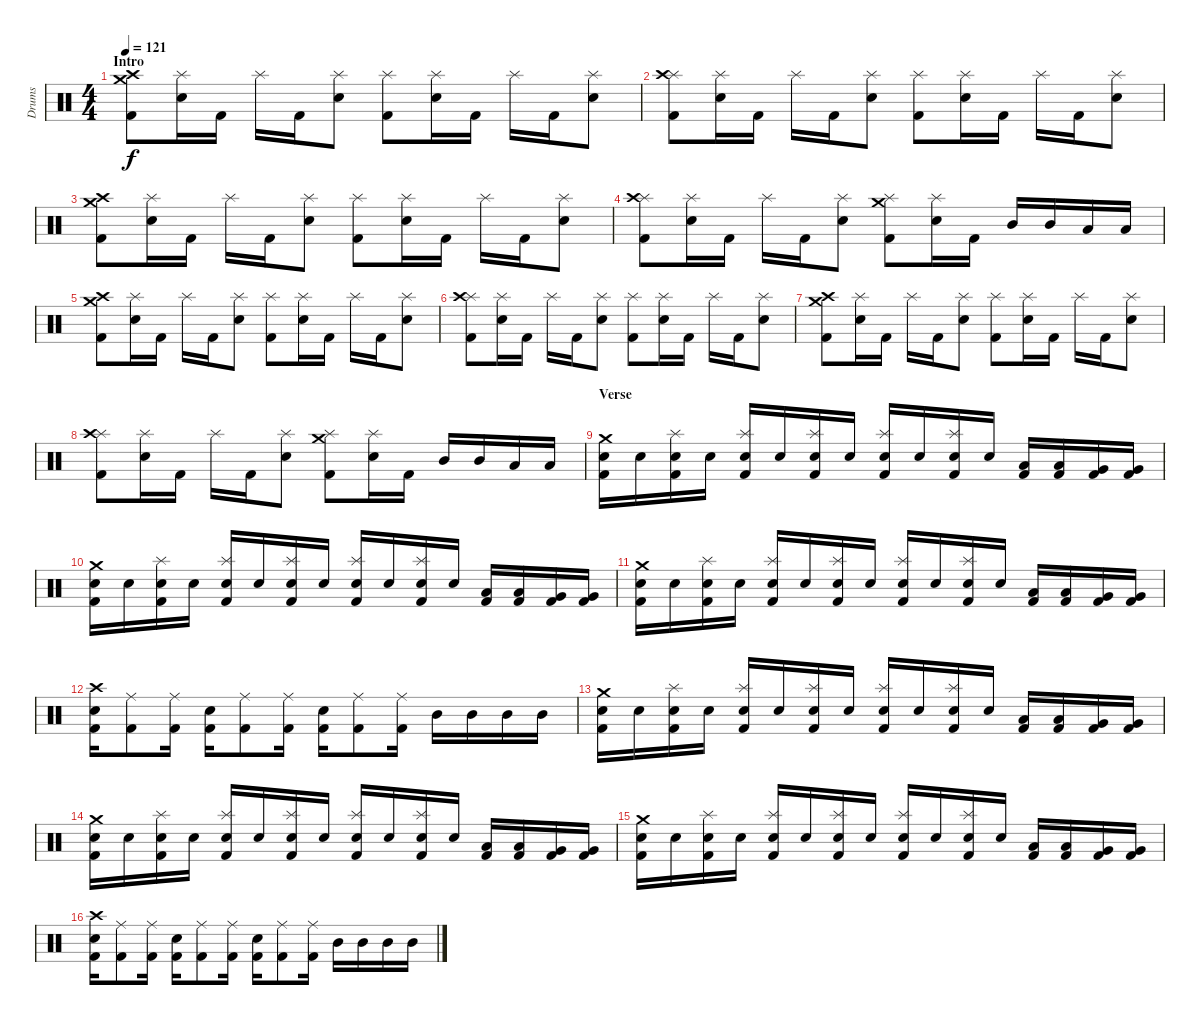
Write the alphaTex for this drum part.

\track ("Drums" "Drums") {instrument percussion}
\staff {score}
\articulation defaults
\ts (4 4)
\section ("" "Intro")
\tempo 121
\clef neutral
\ks c
("Crash high (hit)" "Crash medium (hit)" "Kick (hit) 2").8{dy f} ("Splash (hit)" "Snare (hit) 2").16 "Kick (hit) 2".16 "Splash (hit)".16 "Kick (hit) 2".16 ("Splash (hit)" "Snare (hit) 2").8 ("Splash (hit)" "Kick (hit) 2").8 ("Splash (hit)" "Snare (hit) 2").16 "Kick (hit) 2".16 "Splash (hit)".16 "Kick (hit) 2".16 ("Splash (hit)" "Snare (hit) 2").8 |
("Splash (hit)" "Crash high (hit)" "Kick (hit) 2").8 ("Splash (hit)" "Snare (hit) 2").16 "Kick (hit) 2".16 "Splash (hit)".16 "Kick (hit) 2".16 ("Splash (hit)" "Snare (hit) 2").8 ("Splash (hit)" "Kick (hit) 2").8 ("Splash (hit)" "Snare (hit) 2").16 "Kick (hit) 2".16 "Splash (hit)".16 "Kick (hit) 2".16 ("Splash (hit)" "Snare (hit) 2").8 |
("Crash high (hit)" "Crash medium (hit)" "Kick (hit) 2").8 ("Splash (hit)" "Snare (hit) 2").16 "Kick (hit) 2".16 "Splash (hit)".16 "Kick (hit) 2".16 ("Splash (hit)" "Snare (hit) 2").8 ("Splash (hit)" "Kick (hit) 2").8 ("Splash (hit)" "Snare (hit) 2").16 "Kick (hit) 2".16 "Splash (hit)".16 "Kick (hit) 2".16 ("Splash (hit)" "Snare (hit) 2").8 |
("Splash (hit)" "Crash high (hit)" "Kick (hit) 2").8 ("Splash (hit)" "Snare (hit) 2").16 "Kick (hit) 2".16 "Splash (hit)".16 "Kick (hit) 2".16 ("Splash (hit)" "Snare (hit) 2").8 ("Splash (hit)" "Crash medium (hit)" "Kick (hit) 2").8 ("Splash (hit)" "Snare (hit) 2").16 "Kick (hit) 2".16 "Mid Tom (hit)".16 "Mid Tom (hit)".16 "Low Tom (hit)".16 "Low Tom (hit)".16 |
("Crash high (hit)" "Crash medium (hit)" "Kick (hit) 2").8 ("Splash (hit)" "Snare (hit) 2").16 "Kick (hit) 2".16 "Splash (hit)".16 "Kick (hit) 2".16 ("Splash (hit)" "Snare (hit) 2").8 ("Splash (hit)" "Kick (hit) 2").8 ("Splash (hit)" "Snare (hit) 2").16 "Kick (hit) 2".16 "Splash (hit)".16 "Kick (hit) 2".16 ("Splash (hit)" "Snare (hit) 2").8 |
("Splash (hit)" "Crash high (hit)" "Kick (hit) 2").8 ("Splash (hit)" "Snare (hit) 2").16 "Kick (hit) 2".16 "Splash (hit)".16 "Kick (hit) 2".16 ("Splash (hit)" "Snare (hit) 2").8 ("Splash (hit)" "Kick (hit) 2").8 ("Splash (hit)" "Snare (hit) 2").16 "Kick (hit) 2".16 "Splash (hit)".16 "Kick (hit) 2".16 ("Splash (hit)" "Snare (hit) 2").8 |
("Crash high (hit)" "Crash medium (hit)" "Kick (hit) 2").8 ("Splash (hit)" "Snare (hit) 2").16 "Kick (hit) 2".16 "Splash (hit)".16 "Kick (hit) 2".16 ("Splash (hit)" "Snare (hit) 2").8 ("Splash (hit)" "Kick (hit) 2").8 ("Splash (hit)" "Snare (hit) 2").16 "Kick (hit) 2".16 "Splash (hit)".16 "Kick (hit) 2".16 ("Splash (hit)" "Snare (hit) 2").8 |
("Splash (hit)" "Crash high (hit)" "Kick (hit) 2").8 ("Splash (hit)" "Snare (hit) 2").16 "Kick (hit) 2".16 "Splash (hit)".16 "Kick (hit) 2".16 ("Splash (hit)" "Snare (hit) 2").8 ("Splash (hit)" "Crash medium (hit)" "Kick (hit) 2").8 ("Splash (hit)" "Snare (hit) 2").16 "Kick (hit) 2".16 "Mid Tom (hit)".16 "Mid Tom (hit)".16 "Low Tom (hit)".16 "Low Tom (hit)".16 |
\section ("" "Verse")
("Crash medium (hit)" "Snare (hit) 2" "Kick (hit) 2").16 "Snare (hit) 2".16 ("Splash (hit)" "Snare (hit) 2" "Kick (hit) 2").16 "Snare (hit) 2".16 ("Splash (hit)" "Snare (hit) 2" "Kick (hit) 2").16 "Snare (hit) 2".16 ("Splash (hit)" "Snare (hit) 2" "Kick (hit) 2").16 "Snare (hit) 2".16 ("Splash (hit)" "Snare (hit) 2" "Kick (hit) 2").16 "Snare (hit) 2".16 ("Splash (hit)" "Snare (hit) 2" "Kick (hit) 2").16 "Snare (hit) 2".16 ("Low Tom (hit)" "Kick (hit) 2").16 ("Low Tom (hit)" "Kick (hit) 2").16 ("Very Low Tom (hit)" "Kick (hit) 2").16 ("Very Low Tom (hit)" "Kick (hit) 2").16 |
("Crash medium (hit)" "Snare (hit) 2" "Kick (hit) 2").16 "Snare (hit) 2".16 ("Splash (hit)" "Snare (hit) 2" "Kick (hit) 2").16 "Snare (hit) 2".16 ("Splash (hit)" "Snare (hit) 2" "Kick (hit) 2").16 "Snare (hit) 2".16 ("Splash (hit)" "Snare (hit) 2" "Kick (hit) 2").16 "Snare (hit) 2".16 ("Splash (hit)" "Snare (hit) 2" "Kick (hit) 2").16 "Snare (hit) 2".16 ("Splash (hit)" "Snare (hit) 2" "Kick (hit) 2").16 "Snare (hit) 2".16 ("Low Tom (hit)" "Kick (hit) 2").16 ("Low Tom (hit)" "Kick (hit) 2").16 ("Very Low Tom (hit)" "Kick (hit) 2").16 ("Very Low Tom (hit)" "Kick (hit) 2").16 |
("Crash medium (hit)" "Snare (hit) 2" "Kick (hit) 2").16 "Snare (hit) 2".16 ("Splash (hit)" "Snare (hit) 2" "Kick (hit) 2").16 "Snare (hit) 2".16 ("Splash (hit)" "Snare (hit) 2" "Kick (hit) 2").16 "Snare (hit) 2".16 ("Splash (hit)" "Snare (hit) 2" "Kick (hit) 2").16 "Snare (hit) 2".16 ("Splash (hit)" "Snare (hit) 2" "Kick (hit) 2").16 "Snare (hit) 2".16 ("Splash (hit)" "Snare (hit) 2" "Kick (hit) 2").16 "Snare (hit) 2".16 ("Low Tom (hit)" "Kick (hit) 2").16 ("Low Tom (hit)" "Kick (hit) 2").16 ("Very Low Tom (hit)" "Kick (hit) 2").16 ("Very Low Tom (hit)" "Kick (hit) 2").16 |
("Crash high (hit)" "Snare (hit) 2" "Kick (hit) 2").16 ("Ride (middle)" "Kick (hit) 2").8 ("Ride (middle)" "Kick (hit) 2").16 ("Snare (hit) 2" "Kick (hit) 2").16 ("Ride (middle)" "Kick (hit) 2").8 ("Ride (middle)" "Kick (hit) 2").16 ("Snare (hit) 2" "Kick (hit) 2").16 ("Ride (middle)" "Kick (hit) 2").8 ("Ride (middle)" "Kick (hit) 2").16 "Mid Tom (hit)".16 "Mid Tom (hit)".16 "Mid Tom (hit)".16 "Mid Tom (hit)".16 |
("Crash medium (hit)" "Snare (hit) 2" "Kick (hit) 2").16 "Snare (hit) 2".16 ("Splash (hit)" "Snare (hit) 2" "Kick (hit) 2").16 "Snare (hit) 2".16 ("Splash (hit)" "Snare (hit) 2" "Kick (hit) 2").16 "Snare (hit) 2".16 ("Splash (hit)" "Snare (hit) 2" "Kick (hit) 2").16 "Snare (hit) 2".16 ("Splash (hit)" "Snare (hit) 2" "Kick (hit) 2").16 "Snare (hit) 2".16 ("Splash (hit)" "Snare (hit) 2" "Kick (hit) 2").16 "Snare (hit) 2".16 ("Low Tom (hit)" "Kick (hit) 2").16 ("Low Tom (hit)" "Kick (hit) 2").16 ("Very Low Tom (hit)" "Kick (hit) 2").16 ("Very Low Tom (hit)" "Kick (hit) 2").16 |
("Crash medium (hit)" "Snare (hit) 2" "Kick (hit) 2").16 "Snare (hit) 2".16 ("Splash (hit)" "Snare (hit) 2" "Kick (hit) 2").16 "Snare (hit) 2".16 ("Splash (hit)" "Snare (hit) 2" "Kick (hit) 2").16 "Snare (hit) 2".16 ("Splash (hit)" "Snare (hit) 2" "Kick (hit) 2").16 "Snare (hit) 2".16 ("Splash (hit)" "Snare (hit) 2" "Kick (hit) 2").16 "Snare (hit) 2".16 ("Splash (hit)" "Snare (hit) 2" "Kick (hit) 2").16 "Snare (hit) 2".16 ("Low Tom (hit)" "Kick (hit) 2").16 ("Low Tom (hit)" "Kick (hit) 2").16 ("Very Low Tom (hit)" "Kick (hit) 2").16 ("Very Low Tom (hit)" "Kick (hit) 2").16 |
("Crash medium (hit)" "Snare (hit) 2" "Kick (hit) 2").16 "Snare (hit) 2".16 ("Splash (hit)" "Snare (hit) 2" "Kick (hit) 2").16 "Snare (hit) 2".16 ("Splash (hit)" "Snare (hit) 2" "Kick (hit) 2").16 "Snare (hit) 2".16 ("Splash (hit)" "Snare (hit) 2" "Kick (hit) 2").16 "Snare (hit) 2".16 ("Splash (hit)" "Snare (hit) 2" "Kick (hit) 2").16 "Snare (hit) 2".16 ("Splash (hit)" "Snare (hit) 2" "Kick (hit) 2").16 "Snare (hit) 2".16 ("Low Tom (hit)" "Kick (hit) 2").16 ("Low Tom (hit)" "Kick (hit) 2").16 ("Very Low Tom (hit)" "Kick (hit) 2").16 ("Very Low Tom (hit)" "Kick (hit) 2").16 |
("Crash high (hit)" "Snare (hit) 2" "Kick (hit) 2").16 ("Ride (middle)" "Kick (hit) 2").8 ("Ride (middle)" "Kick (hit) 2").16 ("Snare (hit) 2" "Kick (hit) 2").16 ("Ride (middle)" "Kick (hit) 2").8 ("Ride (middle)" "Kick (hit) 2").16 ("Snare (hit) 2" "Kick (hit) 2").16 ("Ride (middle)" "Kick (hit) 2").8 ("Ride (middle)" "Kick (hit) 2").16 "Mid Tom (hit)".16 "Mid Tom (hit)".16 "Mid Tom (hit)".16 "Mid Tom (hit)".16
